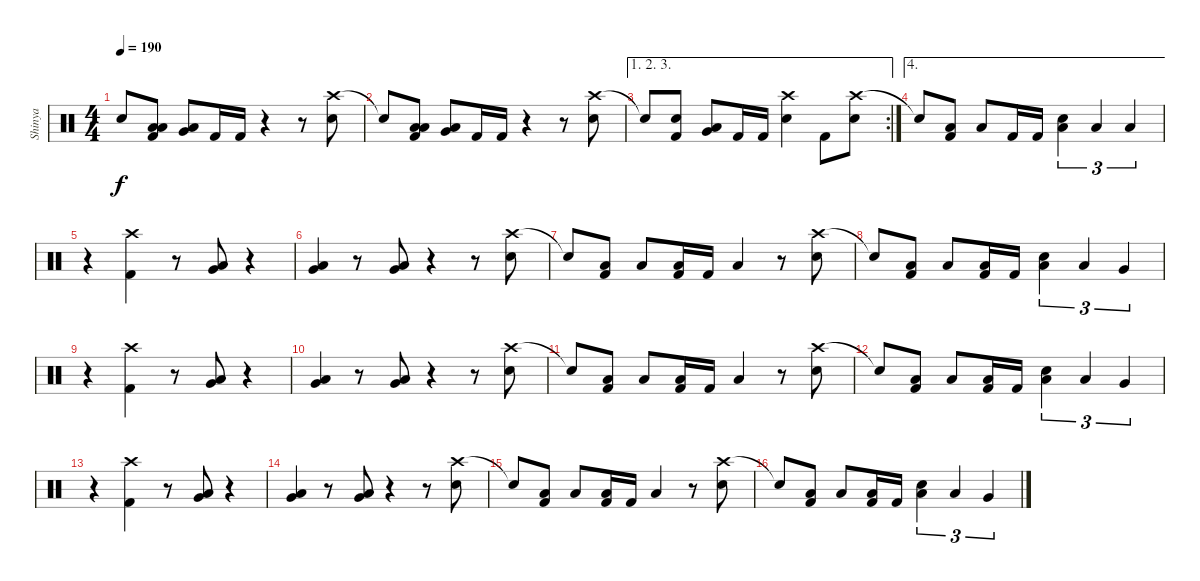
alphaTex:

\track ("Shinya" "Shinya") {instrument percussion}
\staff {score}
\articulation defaults
\ts (4 4)
\tempo 190
\clef neutral
\ks c "Snare (hit)"{t}.8{dy f}
("Low Tom (hit)" "Low Floor Tom (hit)" "Kick (hit) 2").8 ("Very Low Tom (hit)" "Low Floor Tom (hit)").8 "Kick (hit) 2".16 "Kick (hit) 2".16 r.4 r.8 ("Crash high (hit)" "Electric Snare (hit)").8 |
"Snare (hit)"{t}.8 ("Low Tom (hit)" "Low Floor Tom (hit)" "Kick (hit) 2").8 ("Very Low Tom (hit)" "Low Floor Tom (hit)").8 "Kick (hit) 2".16 "Kick (hit) 2".16 r.4 r.8 ("Crash high (hit)" "Electric Snare (hit)").8 |
\ae (1 2 3)
\rc 2 "Snare (hit)"{t}.8
("Electric Snare (hit)" "Kick (hit) 2").8 ("Very Low Tom (hit)" "Low Floor Tom (hit)").8 "Kick (hit) 2".16 "Kick (hit) 2".16 ("Crash high (hit)" "Electric Snare (hit)").4 "Kick (hit) 2".8 ("Crash high (hit)" "Electric Snare (hit)").8 |
\ae 4 "Snare (hit)"{t}.8
("Low Floor Tom (hit)" "Kick (hit) 2").8 "Low Floor Tom (hit)".8 "Kick (hit) 2".16 "Kick (hit) 2".16 ("Low Floor Tom (hit)" "Electric Snare (hit)").4{tu (3 2)} "Low Tom (hit)".4{tu (3 2)} "Low Floor Tom (hit)".4{tu (3 2)} |
r.4 ("Crash high (hit)" "Kick (hit) 2").4 r.8 ("Low Tom (hit)" "Very Low Tom (hit)").8 r.4 |
("Very Low Tom (hit)" "Low Floor Tom (hit)").4 r.8 ("Very Low Tom (hit)" "Low Floor Tom (hit)").8 r.4 r.8 ("Crash high (hit)" "Electric Snare (hit)").8 |
"Snare (hit)"{t}.8 ("Low Floor Tom (hit)" "Kick (hit) 2").8 "Low Floor Tom (hit)".8 ("Low Floor Tom (hit)" "Kick (hit) 2").16 "Kick (hit) 2".16 "Low Floor Tom (hit)".4 r.8 ("Crash high (hit)" "Electric Snare (hit)").8 |
"Snare (hit)"{t}.8 ("Low Floor Tom (hit)" "Kick (hit) 2").8 "Low Floor Tom (hit)".8 ("Low Floor Tom (hit)" "Kick (hit) 2").16 "Kick (hit) 2".16 ("Low Floor Tom (hit)" "Electric Snare (hit)").4{tu (3 2)} "Low Tom (hit)".4{tu (3 2)} "Very Low Tom (hit)".4{tu (3 2)} |
r.4 ("Crash high (hit)" "Kick (hit) 2").4 r.8 ("Low Tom (hit)" "Very Low Tom (hit)").8 r.4 |
("Very Low Tom (hit)" "Low Floor Tom (hit)").4 r.8 ("Very Low Tom (hit)" "Low Floor Tom (hit)").8 r.4 r.8 ("Crash high (hit)" "Electric Snare (hit)").8 |
"Snare (hit)"{t}.8 ("Low Floor Tom (hit)" "Kick (hit) 2").8 "Low Floor Tom (hit)".8 ("Low Floor Tom (hit)" "Kick (hit) 2").16 "Kick (hit) 2".16 "Low Floor Tom (hit)".4 r.8 ("Crash high (hit)" "Electric Snare (hit)").8 |
"Snare (hit)"{t}.8 ("Low Floor Tom (hit)" "Kick (hit) 2").8 "Low Floor Tom (hit)".8 ("Low Floor Tom (hit)" "Kick (hit) 2").16 "Kick (hit) 2".16 ("Low Floor Tom (hit)" "Electric Snare (hit)").4{tu (3 2)} "Low Tom (hit)".4{tu (3 2)} "Very Low Tom (hit)".4{tu (3 2)} |
r.4 ("Crash high (hit)" "Kick (hit) 2").4 r.8 ("Low Tom (hit)" "Very Low Tom (hit)").8 r.4 |
("Very Low Tom (hit)" "Low Floor Tom (hit)").4 r.8 ("Very Low Tom (hit)" "Low Floor Tom (hit)").8 r.4 r.8 ("Crash high (hit)" "Electric Snare (hit)").8 |
"Snare (hit)"{t}.8 ("Low Floor Tom (hit)" "Kick (hit) 2").8 "Low Floor Tom (hit)".8 ("Low Floor Tom (hit)" "Kick (hit) 2").16 "Kick (hit) 2".16 "Low Floor Tom (hit)".4 r.8 ("Crash high (hit)" "Electric Snare (hit)").8 |
"Snare (hit)"{t}.8 ("Low Floor Tom (hit)" "Kick (hit) 2").8 "Low Floor Tom (hit)".8 ("Low Floor Tom (hit)" "Kick (hit) 2").16 "Kick (hit) 2".16 ("Low Floor Tom (hit)" "Electric Snare (hit)").4{tu (3 2)} "Low Tom (hit)".4{tu (3 2)} "Very Low Tom (hit)".4{tu (3 2)}
